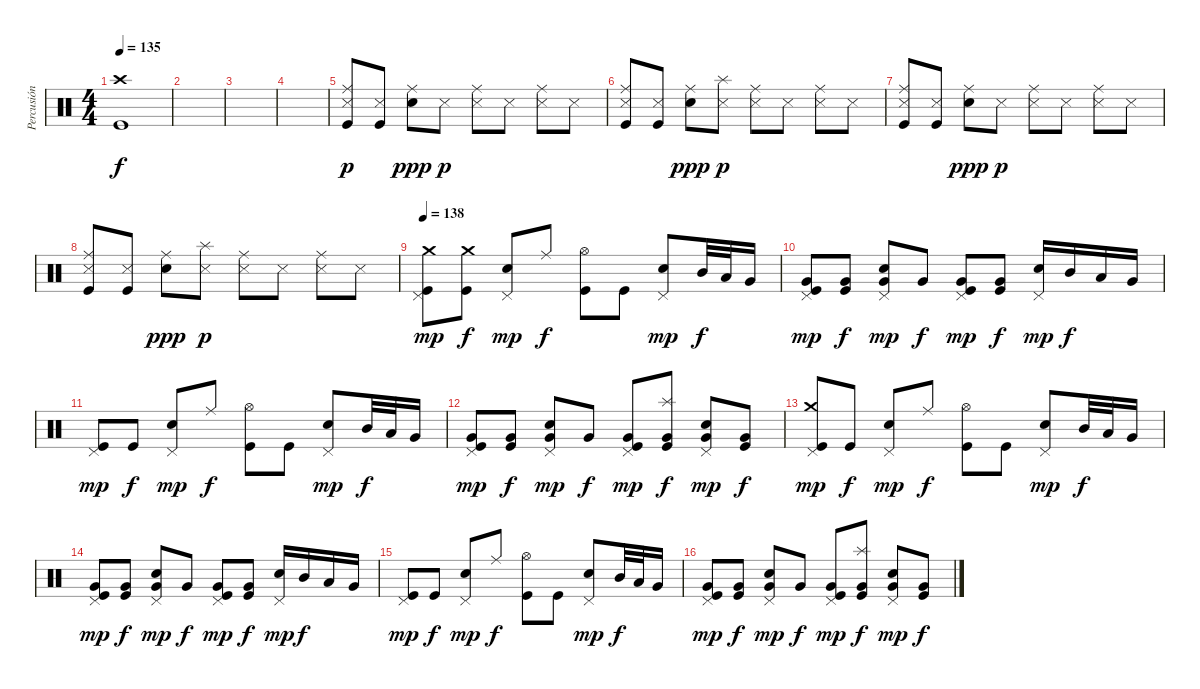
\track ("Percusión" "Percusión") {instrument percussion}
\staff {score}
\articulation defaults
\ts (4 4)
\tempo 135
\clef neutral
\ks c
("Crash high (hit)" "Kick (hit)").1{dy f} |
|
|
|
("Ride (middle)" "Snare (side stick) 3" "Kick (hit)").8{dy p} ("Snare (side stick) 3" "Kick (hit)").8 ("Ride (middle)" "Snare (hit) 2").8{dy ppp} "Snare (side stick) 3".8{dy p} ("Ride (middle)" "Snare (side stick) 3").8 "Snare (side stick) 3".8 ("Ride (middle)" "Snare (side stick) 3").8 "Snare (side stick) 3".8 |
("Ride (middle)" "Snare (side stick) 3" "Kick (hit)").8 ("Snare (side stick) 3" "Kick (hit)").8 ("Ride (middle)" "Snare (hit) 2").8{dy ppp} ("Splash (hit)" "Snare (side stick) 3").8{dy p} ("Ride (middle)" "Snare (side stick) 3").8 "Snare (side stick) 3".8 ("Ride (middle)" "Snare (side stick) 3").8 "Snare (side stick) 3".8 |
("Ride (middle)" "Snare (side stick) 3" "Kick (hit)").8 ("Snare (side stick) 3" "Kick (hit)").8 ("Ride (middle)" "Snare (hit) 2").8{dy ppp} "Snare (side stick) 3".8{dy p} ("Ride (middle)" "Snare (side stick) 3").8 "Snare (side stick) 3".8 ("Ride (middle)" "Snare (side stick) 3").8 "Snare (side stick) 3".8 |
("Ride (middle)" "Snare (side stick) 3" "Kick (hit)").8 ("Snare (side stick) 3" "Kick (hit)").8 ("Ride (middle)" "Snare (hit) 2").8{dy ppp} ("Splash (hit)" "Snare (side stick) 3").8{dy p} ("Ride (middle)" "Snare (side stick) 3").8 "Snare (side stick) 3".8 ("Ride (middle)" "Snare (side stick) 3").8 "Snare (side stick) 3".8 |
\tempo 138
("Crash medium (hit)" "Pedal Hi-Hat (hit)" "Kick (hit)").8{dy mp} ("Crash medium (hit)" "Kick (hit)").8{dy f} ("Pedal Hi-Hat (hit)" "Snare (hit) 2").8{dy mp} "Ride (middle)".8{dy f} ("Hi-Hat (open)" "Kick (hit)").8 "Kick (hit)".8 ("Pedal Hi-Hat (hit)" "Snare (hit) 2").8{dy mp} "Mid Tom (hit)".32{dy f} "Low Tom (hit)".32 "Very Low Tom (hit)".16 |
("Pedal Hi-Hat (hit)" "Very Low Tom (hit)" "Kick (hit)").8{dy mp} ("Very Low Tom (hit)" "Kick (hit)").8{dy f} ("Pedal Hi-Hat (hit)" "Very Low Tom (hit)" "Snare (hit) 2").8{dy mp} "Very Low Tom (hit)".8{dy f} ("Pedal Hi-Hat (hit)" "Very Low Tom (hit)" "Kick (hit)").8{dy mp} ("Very Low Tom (hit)" "Kick (hit)").8{dy f} ("Pedal Hi-Hat (hit)" "Snare (hit) 2").16{dy mp} "Mid Tom (hit)".16{dy f} "Low Tom (hit)".16 "Very Low Tom (hit)".16 |
("Pedal Hi-Hat (hit)" "Kick (hit)").8{dy mp} "Kick (hit)".8{dy f} ("Pedal Hi-Hat (hit)" "Snare (hit) 2").8{dy mp} "Ride (middle)".8{dy f} ("Hi-Hat (open)" "Kick (hit)").8 "Kick (hit)".8 ("Pedal Hi-Hat (hit)" "Snare (hit) 2").8{dy mp} "Mid Tom (hit)".32{dy f} "Low Tom (hit)".32 "Very Low Tom (hit)".16 |
("Pedal Hi-Hat (hit)" "Very Low Tom (hit)" "Kick (hit)").8{dy mp} ("Very Low Tom (hit)" "Kick (hit)").8{dy f} ("Pedal Hi-Hat (hit)" "Very Low Tom (hit)" "Snare (hit) 2").8{dy mp} "Very Low Tom (hit)".8{dy f} ("Pedal Hi-Hat (hit)" "Very Low Tom (hit)" "Kick (hit)").8{dy mp} ("Splash (hit)" "Very Low Tom (hit)" "Kick (hit)").8{dy f} ("Pedal Hi-Hat (hit)" "Very Low Tom (hit)" "Snare (hit) 2").8{dy mp} ("Very Low Tom (hit)" "Kick (hit)").8{dy f} |
("Crash medium (hit)" "Pedal Hi-Hat (hit)" "Kick (hit)").8{dy mp} "Kick (hit)".8{dy f} ("Pedal Hi-Hat (hit)" "Snare (hit) 2").8{dy mp} "Ride (middle)".8{dy f} ("Hi-Hat (open)" "Kick (hit)").8 "Kick (hit)".8 ("Pedal Hi-Hat (hit)" "Snare (hit) 2").8{dy mp} "Mid Tom (hit)".32{dy f} "Low Tom (hit)".32 "Very Low Tom (hit)".16 |
("Pedal Hi-Hat (hit)" "Very Low Tom (hit)" "Kick (hit)").8{dy mp} ("Very Low Tom (hit)" "Kick (hit)").8{dy f} ("Pedal Hi-Hat (hit)" "Very Low Tom (hit)" "Snare (hit) 2").8{dy mp} "Very Low Tom (hit)".8{dy f} ("Pedal Hi-Hat (hit)" "Very Low Tom (hit)" "Kick (hit)").8{dy mp} ("Very Low Tom (hit)" "Kick (hit)").8{dy f} ("Pedal Hi-Hat (hit)" "Snare (hit) 2").16{dy mp} "Mid Tom (hit)".16{dy f} "Low Tom (hit)".16 "Very Low Tom (hit)".16 |
("Pedal Hi-Hat (hit)" "Kick (hit)").8{dy mp} "Kick (hit)".8{dy f} ("Pedal Hi-Hat (hit)" "Snare (hit) 2").8{dy mp} "Ride (middle)".8{dy f} ("Hi-Hat (open)" "Kick (hit)").8 "Kick (hit)".8 ("Pedal Hi-Hat (hit)" "Snare (hit) 2").8{dy mp} "Mid Tom (hit)".32{dy f} "Low Tom (hit)".32 "Very Low Tom (hit)".16 |
("Pedal Hi-Hat (hit)" "Very Low Tom (hit)" "Kick (hit)").8{dy mp} ("Very Low Tom (hit)" "Kick (hit)").8{dy f} ("Pedal Hi-Hat (hit)" "Very Low Tom (hit)" "Snare (hit) 2").8{dy mp} "Very Low Tom (hit)".8{dy f} ("Pedal Hi-Hat (hit)" "Very Low Tom (hit)" "Kick (hit)").8{dy mp} ("Splash (hit)" "Very Low Tom (hit)" "Kick (hit)").8{dy f} ("Pedal Hi-Hat (hit)" "Very Low Tom (hit)" "Snare (hit) 2").8{dy mp} ("Very Low Tom (hit)" "Kick (hit)").8{dy f}
